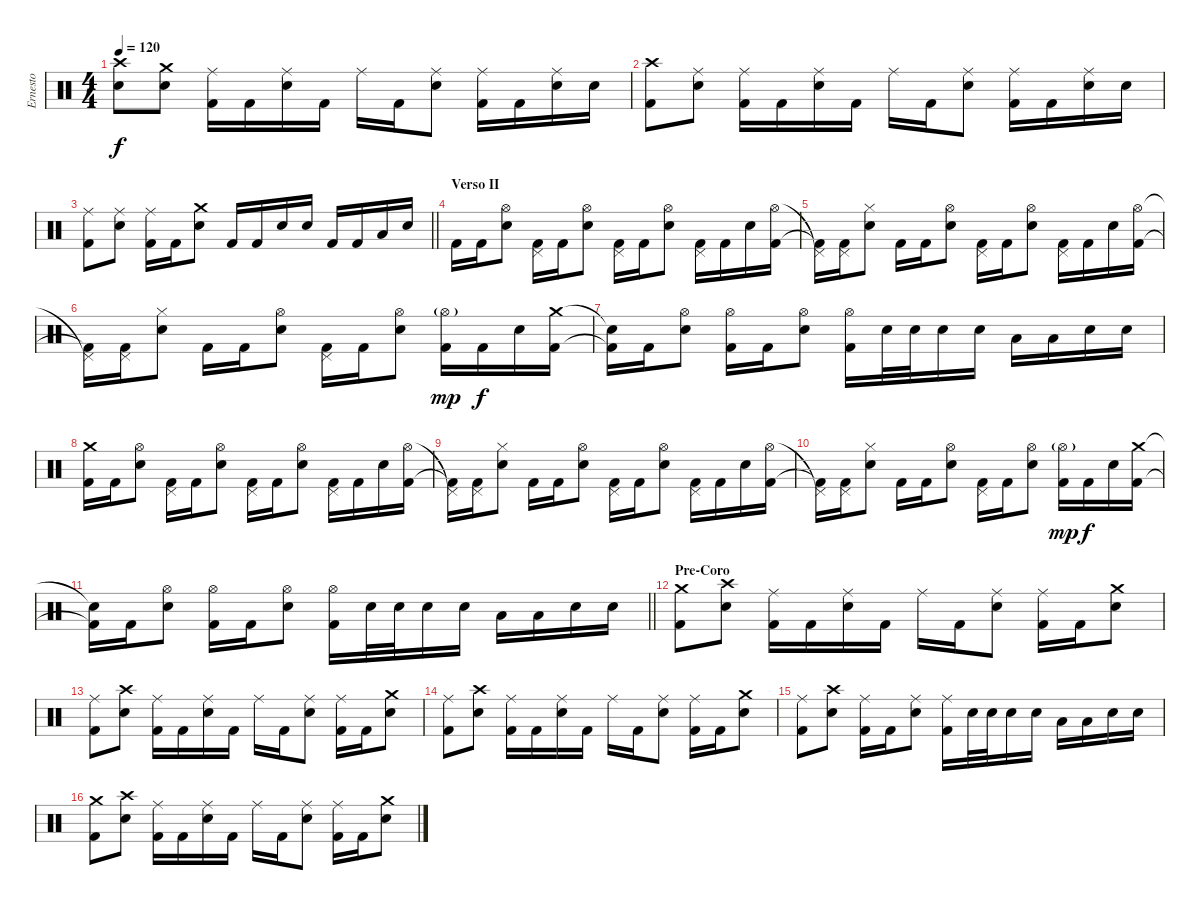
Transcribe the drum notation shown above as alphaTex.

\track ("Ernesto" "Ernesto") {instrument percussion}
\staff
\articulation defaults
\ts (4 4)
\tempo 120
\clef neutral
\ks c
("Crash high (hit)" "Electric Snare (hit)").8{dy f} ("Crash medium (hit)" "Electric Snare (hit)").8 ("Ride (middle)" "Kick (hit) 2").16 "Kick (hit) 2".16 ("Ride (middle)" "Electric Snare (hit)").16 "Kick (hit) 2".16 "Ride (middle)".16 "Kick (hit) 2".16 ("Ride (middle)" "Electric Snare (hit)").8 ("Ride (middle)" "Kick (hit) 2").16 "Kick (hit) 2".16 ("Ride (middle)" "Electric Snare (hit)").16 "Electric Snare (hit)".16 |
("Crash high (hit)" "Kick (hit) 2").8 ("Ride (middle)" "Electric Snare (hit)").8 ("Ride (middle)" "Kick (hit) 2").16 "Kick (hit) 2".16 ("Ride (middle)" "Electric Snare (hit)").16 "Kick (hit) 2".16 "Ride (middle)".16 "Kick (hit) 2".16 ("Ride (middle)" "Electric Snare (hit)").8 ("Ride (middle)" "Kick (hit) 2").16 "Kick (hit) 2".16 ("Ride (middle)" "Electric Snare (hit)").16 "Electric Snare (hit)".16 |
\barLineRight lightlight
("Ride (middle)" "Kick (hit) 2").8 ("Ride (middle)" "Electric Snare (hit)").8 ("Ride (middle)" "Kick (hit) 2").16 "Kick (hit) 2".16 ("Crash medium (hit)" "Electric Snare (hit)").8 "Kick (hit) 2".16 "Kick (hit) 2".16 "Electric Snare (hit)".16 "Electric Snare (hit)".16 "Kick (hit) 2".16 "Kick (hit) 2".16 "Low Tom (hit)".16 "Electric Snare (hit)".16 |
\section ("" "Verso II")
"Kick (hit) 2".16 "Kick (hit) 2".16 ("Hi-Hat (open)" "Electric Snare (hit)").8 ("Pedal Hi-Hat (hit)" "Kick (hit) 2").16 "Kick (hit) 2".16 ("Hi-Hat (open)" "Electric Snare (hit)").8 ("Pedal Hi-Hat (hit)" "Kick (hit) 2").16 "Kick (hit) 2".16 ("Hi-Hat (open)" "Electric Snare (hit)").8 ("Pedal Hi-Hat (hit)" "Kick (hit) 2").16 "Kick (hit) 2".16 "Electric Snare (hit)".16 ("Hi-Hat (open)" "Kick (hit) 2").16 |
("Pedal Hi-Hat (hit)"{t} "Kick (hit) 2"{t}).16 ("Pedal Hi-Hat (hit)" "Kick (hit) 2").16 ("Hi-Hat (closed)" "Electric Snare (hit)").8 "Kick (hit) 2".16 "Kick (hit) 2".16 ("Hi-Hat (open)" "Electric Snare (hit)").8 ("Pedal Hi-Hat (hit)" "Kick (hit) 2").16 "Kick (hit) 2".16 ("Hi-Hat (open)" "Electric Snare (hit)").8 ("Pedal Hi-Hat (hit)" "Kick (hit) 2").16 "Kick (hit) 2".16 "Electric Snare (hit)".16 ("Hi-Hat (open)" "Kick (hit) 2").16 |
("Pedal Hi-Hat (hit)"{t} "Kick (hit) 2"{t}).16 ("Pedal Hi-Hat (hit)" "Kick (hit) 2").16 ("Hi-Hat (closed)" "Electric Snare (hit)").8 "Kick (hit) 2".16 "Kick (hit) 2".16 ("Hi-Hat (open)" "Electric Snare (hit)").8 ("Pedal Hi-Hat (hit)" "Kick (hit) 2").16 "Kick (hit) 2".16 ("Hi-Hat (open)" "Electric Snare (hit)").8 ("Hi-Hat (open)"{g} "Kick (hit) 2").16{dy mp} "Kick (hit) 2".16{dy f} "Electric Snare (hit)".16 ("Crash medium (hit)" "Kick (hit) 2").16 |
("Snare (hit)"{t} "Kick (hit) 2"{t}).16 "Kick (hit) 2".16 ("Hi-Hat (open)" "Electric Snare (hit)").8 ("Hi-Hat (open)" "Kick (hit) 2").16 "Kick (hit) 2".16 ("Hi-Hat (open)" "Electric Snare (hit)").8 ("Hi-Hat (open)" "Kick (hit) 2").16 "Electric Snare (hit)".32 "Electric Snare (hit)".32 "Electric Snare (hit)".16 "Electric Snare (hit)".16 "Low Tom (hit)".16 "Low Tom (hit)".16 "Electric Snare (hit)".16 "Electric Snare (hit)".16 |
("Crash medium (hit)" "Kick (hit) 2").16 "Kick (hit) 2".16 ("Hi-Hat (open)" "Electric Snare (hit)").8 ("Pedal Hi-Hat (hit)" "Kick (hit) 2").16 "Kick (hit) 2".16 ("Hi-Hat (open)" "Electric Snare (hit)").8 ("Pedal Hi-Hat (hit)" "Kick (hit) 2").16 "Kick (hit) 2".16 ("Hi-Hat (open)" "Electric Snare (hit)").8 ("Pedal Hi-Hat (hit)" "Kick (hit) 2").16 "Kick (hit) 2".16 "Electric Snare (hit)".16 ("Hi-Hat (open)" "Kick (hit) 2").16 |
("Pedal Hi-Hat (hit)"{t} "Kick (hit) 2"{t}).16 ("Pedal Hi-Hat (hit)" "Kick (hit) 2").16 ("Hi-Hat (closed)" "Electric Snare (hit)").8 "Kick (hit) 2".16 "Kick (hit) 2".16 ("Hi-Hat (open)" "Electric Snare (hit)").8 ("Pedal Hi-Hat (hit)" "Kick (hit) 2").16 "Kick (hit) 2".16 ("Hi-Hat (open)" "Electric Snare (hit)").8 ("Pedal Hi-Hat (hit)" "Kick (hit) 2").16 "Kick (hit) 2".16 "Electric Snare (hit)".16 ("Hi-Hat (open)" "Kick (hit) 2").16 |
("Pedal Hi-Hat (hit)"{t} "Kick (hit) 2"{t}).16 ("Pedal Hi-Hat (hit)" "Kick (hit) 2").16 ("Hi-Hat (closed)" "Electric Snare (hit)").8 "Kick (hit) 2".16 "Kick (hit) 2".16 ("Hi-Hat (open)" "Electric Snare (hit)").8 ("Pedal Hi-Hat (hit)" "Kick (hit) 2").16 "Kick (hit) 2".16 ("Hi-Hat (open)" "Electric Snare (hit)").8 ("Hi-Hat (open)"{g} "Kick (hit) 2").16{dy mp} "Kick (hit) 2".16{dy f} "Electric Snare (hit)".16 ("Crash medium (hit)" "Kick (hit) 2").16 |
\barLineRight lightlight
("Snare (hit)"{t} "Kick (hit) 2"{t}).16 "Kick (hit) 2".16 ("Hi-Hat (open)" "Electric Snare (hit)").8 ("Hi-Hat (open)" "Kick (hit) 2").16 "Kick (hit) 2".16 ("Hi-Hat (open)" "Electric Snare (hit)").8 ("Hi-Hat (open)" "Kick (hit) 2").16 "Electric Snare (hit)".32 "Electric Snare (hit)".32 "Electric Snare (hit)".16 "Electric Snare (hit)".16 "Low Tom (hit)".16 "Low Tom (hit)".16 "Electric Snare (hit)".16 "Electric Snare (hit)".16 |
\section ("" "Pre-Coro")
("Crash medium (hit)" "Kick (hit) 2").8 ("Crash high (hit)" "Electric Snare (hit)").8 ("Ride (middle)" "Kick (hit) 2").16 "Kick (hit) 2".16 ("Ride (middle)" "Electric Snare (hit)").16 "Kick (hit) 2".16 "Ride (middle)".16 "Kick (hit) 2".16 ("Ride (middle)" "Electric Snare (hit)").8 ("Ride (middle)" "Kick (hit) 2").16 "Kick (hit) 2".16 ("Crash medium (hit)" "Electric Snare (hit)").8 |
("Ride (middle)" "Kick (hit) 2").8 ("Crash high (hit)" "Electric Snare (hit)").8 ("Ride (middle)" "Kick (hit) 2").16 "Kick (hit) 2".16 ("Ride (middle)" "Electric Snare (hit)").16 "Kick (hit) 2".16 "Ride (middle)".16 "Kick (hit) 2".16 ("Ride (middle)" "Electric Snare (hit)").8 ("Ride (middle)" "Kick (hit) 2").16 "Kick (hit) 2".16 ("Crash medium (hit)" "Electric Snare (hit)").8 |
("Ride (middle)" "Kick (hit) 2").8 ("Crash high (hit)" "Electric Snare (hit)").8 ("Ride (middle)" "Kick (hit) 2").16 "Kick (hit) 2".16 ("Ride (middle)" "Electric Snare (hit)").16 "Kick (hit) 2".16 "Ride (middle)".16 "Kick (hit) 2".16 ("Ride (middle)" "Electric Snare (hit)").8 ("Ride (middle)" "Kick (hit) 2").16 "Kick (hit) 2".16 ("Crash medium (hit)" "Electric Snare (hit)").8 |
("Ride (middle)" "Kick (hit) 2").8 ("Crash high (hit)" "Electric Snare (hit)").8 ("Ride (middle)" "Kick (hit) 2").16 "Kick (hit) 2".16 ("Ride (middle)" "Electric Snare (hit)").8 ("Ride (middle)" "Kick (hit) 2").16 "Electric Snare (hit)".32 "Electric Snare (hit)".32 "Electric Snare (hit)".16 "Electric Snare (hit)".16 "Low Tom (hit)".16 "Low Tom (hit)".16 "Electric Snare (hit)".16 "Electric Snare (hit)".16 |
("Crash medium (hit)" "Kick (hit) 2").8 ("Crash high (hit)" "Electric Snare (hit)").8 ("Ride (middle)" "Kick (hit) 2").16 "Kick (hit) 2".16 ("Ride (middle)" "Electric Snare (hit)").16 "Kick (hit) 2".16 "Ride (middle)".16 "Kick (hit) 2".16 ("Ride (middle)" "Electric Snare (hit)").8 ("Ride (middle)" "Kick (hit) 2").16 "Kick (hit) 2".16 ("Crash medium (hit)" "Electric Snare (hit)").8
